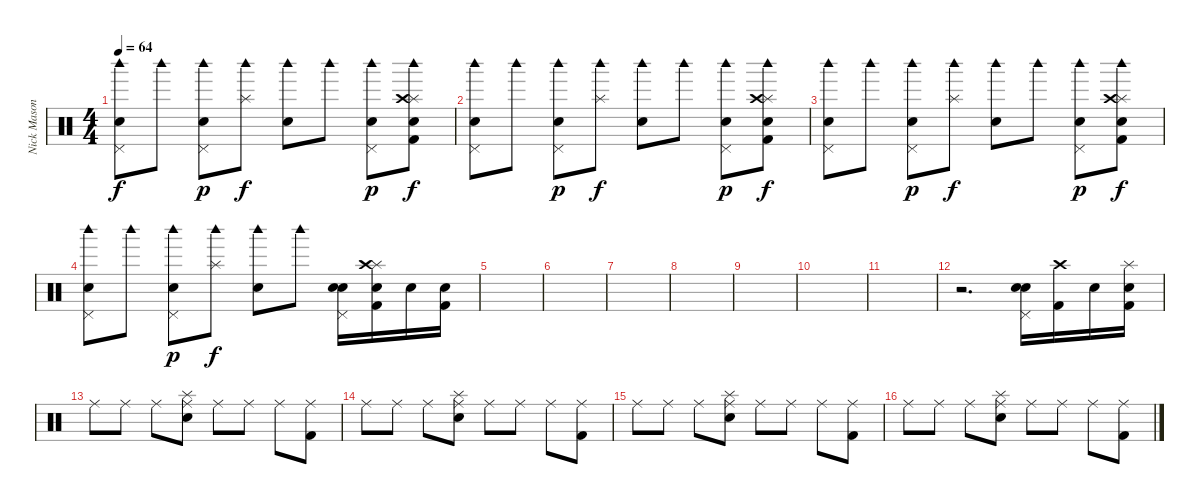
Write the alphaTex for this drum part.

\track ("Nick Mason" "Nick Mason") {instrument percussion}
\staff {score}
\articulation defaults
\ts (4 4)
\tempo 64
\clef neutral
\ks c
("Woodblock high (hit)" "Pedal Hi-Hat (hit)" "Snare (hit) 2").8{dy f} "Woodblock high (hit)".8 ("Woodblock high (hit)" "Pedal Hi-Hat (hit)" "Snare (hit) 2").8{dy p} ("Woodblock high (hit)" "Splash (hit)").8{dy f} ("Woodblock high (hit)" "Snare (hit) 2").8 "Woodblock high (hit)".8 ("Woodblock high (hit)" "Pedal Hi-Hat (hit)" "Snare (hit) 2").8{dy p} ("Woodblock high (hit)" "Splash (hit)" "Crash high (hit)" "Electric Snare (hit)" "Kick (hit) 2").8{dy f} |
("Woodblock high (hit)" "Pedal Hi-Hat (hit)" "Snare (hit) 2").8 "Woodblock high (hit)".8 ("Woodblock high (hit)" "Pedal Hi-Hat (hit)" "Snare (hit) 2").8{dy p} ("Woodblock high (hit)" "Splash (hit)").8{dy f} ("Woodblock high (hit)" "Snare (hit) 2").8 "Woodblock high (hit)".8 ("Woodblock high (hit)" "Pedal Hi-Hat (hit)" "Snare (hit) 2").8{dy p} ("Woodblock high (hit)" "Splash (hit)" "Crash high (hit)" "Electric Snare (hit)" "Kick (hit) 2").8{dy f} |
("Woodblock high (hit)" "Pedal Hi-Hat (hit)" "Snare (hit) 2").8 "Woodblock high (hit)".8 ("Woodblock high (hit)" "Pedal Hi-Hat (hit)" "Snare (hit) 2").8{dy p} ("Woodblock high (hit)" "Splash (hit)").8{dy f} ("Woodblock high (hit)" "Snare (hit) 2").8 "Woodblock high (hit)".8 ("Woodblock high (hit)" "Pedal Hi-Hat (hit)" "Snare (hit) 2").8{dy p} ("Woodblock high (hit)" "Splash (hit)" "Crash high (hit)" "Electric Snare (hit)" "Kick (hit) 2").8{dy f} |
("Woodblock high (hit)" "Pedal Hi-Hat (hit)" "Snare (hit) 2").8 "Woodblock high (hit)".8 ("Woodblock high (hit)" "Pedal Hi-Hat (hit)" "Snare (hit) 2").8{dy p} ("Woodblock high (hit)" "Splash (hit)").8{dy f} ("Woodblock high (hit)" "Snare (hit) 2").8 "Woodblock high (hit)".8 ("Pedal Hi-Hat (hit)" "Electric Snare (hit)" "Snare (hit) 2").16 ("Splash (hit)" "Crash high (hit)" "Electric Snare (hit)" "Kick (hit) 2").16 "Electric Snare (hit)".16 ("Electric Snare (hit)" "Kick (hit) 2").16 |
|
|
|
|
|
|
|
r.2{d} ("Pedal Hi-Hat (hit)" "Electric Snare (hit)" "Snare (hit) 2").16 ("Crash high (hit)" "Kick (hit) 2").16 "Electric Snare (hit)".16 ("Splash (hit)" "Electric Snare (hit)" "Kick (hit) 2").16 |
"Ride (middle)".8 "Ride (middle)".8 "Ride (middle)".8 ("Ride (middle)" "Splash (hit)" "Electric Snare (hit)").8 "Ride (middle)".8 "Ride (middle)".8 "Ride (middle)".8 ("Ride (middle)" "Kick (hit) 2").8 |
"Ride (middle)".8 "Ride (middle)".8 "Ride (middle)".8 ("Ride (middle)" "Splash (hit)" "Electric Snare (hit)").8 "Ride (middle)".8 "Ride (middle)".8 "Ride (middle)".8 ("Ride (middle)" "Kick (hit) 2").8 |
"Ride (middle)".8 "Ride (middle)".8 "Ride (middle)".8 ("Ride (middle)" "Splash (hit)" "Electric Snare (hit)").8 "Ride (middle)".8 "Ride (middle)".8 "Ride (middle)".8 ("Ride (middle)" "Kick (hit) 2").8 |
"Ride (middle)".8 "Ride (middle)".8 "Ride (middle)".8 ("Ride (middle)" "Splash (hit)" "Electric Snare (hit)").8 "Ride (middle)".8 "Ride (middle)".8 "Ride (middle)".8 ("Ride (middle)" "Kick (hit) 2").8
